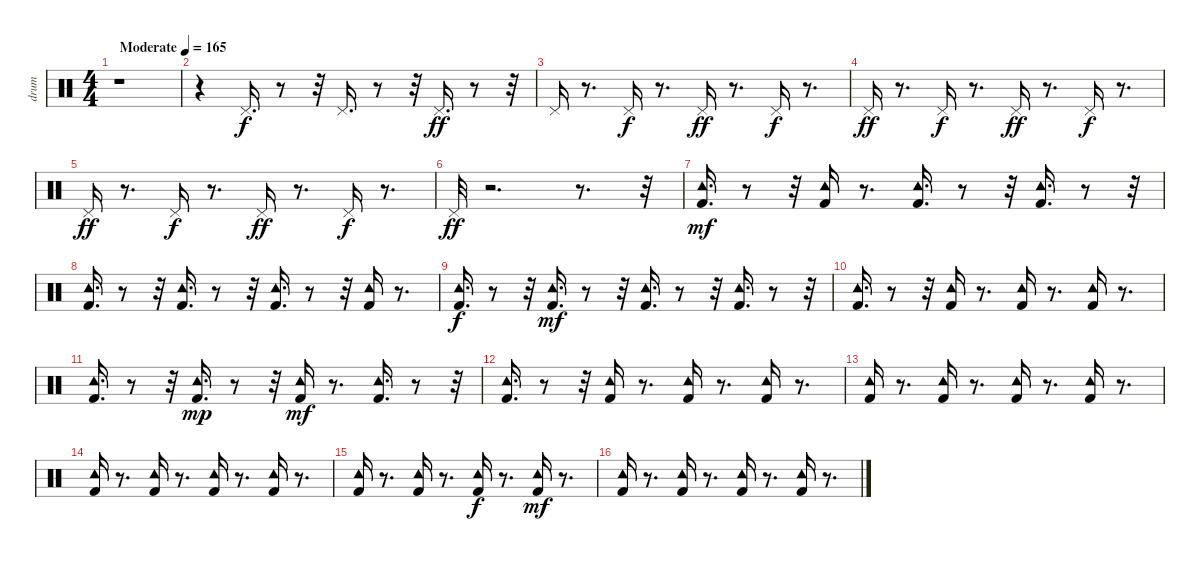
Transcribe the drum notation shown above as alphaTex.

\track ("drum" "drum") {instrument percussion}
\staff {score}
\articulation defaults
\ts (4 4)
\tempo (165 "Moderate")
\clef neutral
\ks c
r.1{dy f} |
r.4 "Pedal Hi-Hat (hit)".16{d} r.8 r.32 "Pedal Hi-Hat (hit)".16{d} r.8 r.32 "Pedal Hi-Hat (hit)".16{d dy ff} r.8 r.32 |
"Pedal Hi-Hat (hit)".16 r.8{d} "Pedal Hi-Hat (hit)".16{dy f} r.8{d} "Pedal Hi-Hat (hit)".16{dy ff} r.8{d} "Pedal Hi-Hat (hit)".16{dy f} r.8{d} |
"Pedal Hi-Hat (hit)".16{dy ff} r.8{d} "Pedal Hi-Hat (hit)".16{dy f} r.8{d} "Pedal Hi-Hat (hit)".16{dy ff} r.8{d} "Pedal Hi-Hat (hit)".16{dy f} r.8{d} |
"Pedal Hi-Hat (hit)".16{dy ff} r.8{d} "Pedal Hi-Hat (hit)".16{dy f} r.8{d} "Pedal Hi-Hat (hit)".16{dy ff} r.8{d} "Pedal Hi-Hat (hit)".16{dy f} r.8{d} |
"Pedal Hi-Hat (hit)".32{dy ff} r.2{d} r.8{d} r.32 |
("Kick (hit) 2" "Tambourine (hit)").16{d dy mf} r.8 r.32 ("Kick (hit) 2" "Tambourine (hit)").16 r.8{d} ("Tambourine (hit)" "Kick (hit) 2").16{d} r.8 r.32 ("Tambourine (hit)" "Kick (hit) 2").16{d} r.8 r.32 |
("Kick (hit) 2" "Tambourine (hit)").16{d} r.8 r.32 ("Kick (hit) 2" "Tambourine (hit)").16{d} r.8 r.32 ("Kick (hit) 2" "Tambourine (hit)").16{d} r.8 r.32 ("Kick (hit) 2" "Tambourine (hit)").16 r.8{d} |
("Kick (hit) 2" "Tambourine (hit)").16{d dy f} r.8 r.32 ("Kick (hit) 2" "Tambourine (hit)").16{d dy mf} r.8 r.32 ("Kick (hit) 2" "Tambourine (hit)").16{d} r.8 r.32 ("Kick (hit) 2" "Tambourine (hit)").16{d} r.8 r.32 |
("Kick (hit) 2" "Tambourine (hit)").16{d} r.8 r.32 ("Kick (hit) 2" "Tambourine (hit)").16 r.8{d} ("Kick (hit) 2" "Tambourine (hit)").16 r.8{d} ("Kick (hit) 2" "Tambourine (hit)").16 r.8{d} |
("Tambourine (hit)" "Kick (hit) 2").16{d} r.8 r.32 ("Tambourine (hit)" "Kick (hit) 2").16{d dy mp} r.8 r.32 ("Kick (hit) 2" "Tambourine (hit)").16{dy mf} r.8{d} ("Tambourine (hit)" "Kick (hit) 2").16{d} r.8 r.32 |
("Kick (hit) 2" "Tambourine (hit)").16{d} r.8 r.32 ("Tambourine (hit)" "Kick (hit) 2").16 r.8{d} ("Tambourine (hit)" "Kick (hit) 2").16 r.8{d} ("Tambourine (hit)" "Kick (hit) 2").16 r.8{d} |
("Tambourine (hit)" "Kick (hit) 2").16 r.8{d} ("Kick (hit) 2" "Tambourine (hit)").16 r.8{d} ("Tambourine (hit)" "Kick (hit) 2").16 r.8{d} ("Tambourine (hit)" "Kick (hit) 2").16 r.8{d} |
("Kick (hit) 2" "Tambourine (hit)").16 r.8{d} ("Kick (hit) 2" "Tambourine (hit)").16 r.8{d} ("Tambourine (hit)" "Kick (hit) 2").16 r.8{d} ("Kick (hit) 2" "Tambourine (hit)").16 r.8{d} |
("Kick (hit) 2" "Tambourine (hit)").16 r.8{d} ("Kick (hit) 2" "Tambourine (hit)").16 r.8{d} ("Tambourine (hit)" "Kick (hit) 2").16{dy f} r.8{d} ("Kick (hit) 2" "Tambourine (hit)").16{dy mf} r.8{d} |
("Tambourine (hit)" "Kick (hit) 2").16 r.8{d} ("Kick (hit) 2" "Tambourine (hit)").16 r.8{d} ("Tambourine (hit)" "Kick (hit) 2").16 r.8{d} ("Tambourine (hit)" "Kick (hit) 2").16 r.8{d}
